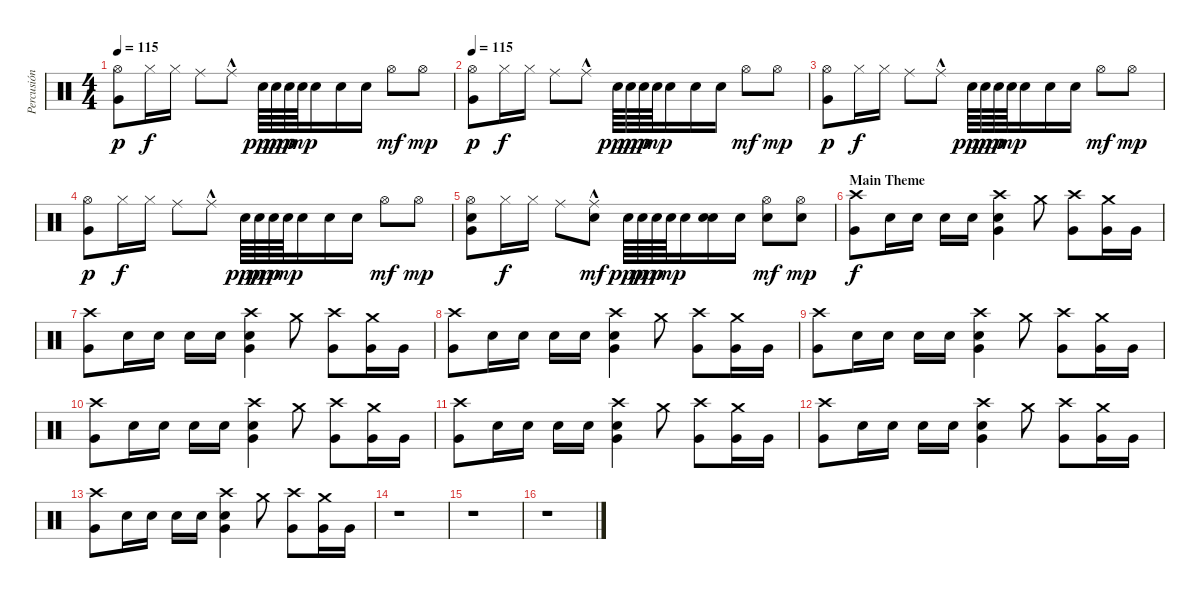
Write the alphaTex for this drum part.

\track ("Percusión" "Percusión") {instrument percussion}
\staff {score}
\articulation defaults
\ts (4 4)
\tempo 115
\clef neutral
\ks c
("Hi-Hat (open)" "Very Low Tom (hit)").8{dy p volume 16} "Hi-Hat (closed)".16{dy f} "Hi-Hat (closed)".16 "Ride (middle)".8 "Ride (middle)"{hac}.8 "Electric Snare (hit)".64{dy ppp} "Electric Snare (hit)".64{dy pp} "Electric Snare (hit)".64{dy p} "Electric Snare (hit)".64{dy mp} "Electric Snare (hit)".16 "Electric Snare (hit)".16 "Electric Snare (hit)".16 "Hi-Hat (open)".8{dy mf} "Hi-Hat (open)".8{dy mp} |
\tempo 115
("Hi-Hat (open)" "Very Low Tom (hit)").8{dy p} "Hi-Hat (closed)".16{dy f} "Hi-Hat (closed)".16 "Ride (middle)".8 "Ride (middle)"{hac}.8 "Electric Snare (hit)".64{dy ppp} "Electric Snare (hit)".64{dy pp} "Electric Snare (hit)".64{dy p} "Electric Snare (hit)".64{dy mp} "Electric Snare (hit)".16 "Electric Snare (hit)".16 "Electric Snare (hit)".16 "Hi-Hat (open)".8{dy mf} "Hi-Hat (open)".8{dy mp} |
("Hi-Hat (open)" "Very Low Tom (hit)").8{dy p} "Hi-Hat (closed)".16{dy f} "Hi-Hat (closed)".16 "Ride (middle)".8 "Ride (middle)"{hac}.8 "Electric Snare (hit)".64{dy ppp} "Electric Snare (hit)".64{dy pp} "Electric Snare (hit)".64{dy p} "Electric Snare (hit)".64{dy mp} "Electric Snare (hit)".16 "Electric Snare (hit)".16 "Electric Snare (hit)".16 "Hi-Hat (open)".8{dy mf} "Hi-Hat (open)".8{dy mp} |
("Hi-Hat (open)" "Very Low Tom (hit)").8{dy p} "Hi-Hat (closed)".16{dy f} "Hi-Hat (closed)".16 "Ride (middle)".8 "Ride (middle)"{hac}.8 "Electric Snare (hit)".64{dy ppp} "Electric Snare (hit)".64{dy pp} "Electric Snare (hit)".64{dy p} "Electric Snare (hit)".64{dy mp} "Electric Snare (hit)".16 "Electric Snare (hit)".16 "Electric Snare (hit)".16 "Hi-Hat (open)".8{dy mf} "Hi-Hat (open)".8{dy mp} |
("Hi-Hat (open)" "Snare (hit) 2" "Very Low Tom (hit)").8 "Hi-Hat (closed)".16{dy f} "Hi-Hat (closed)".16 "Ride (middle)".8 ("Ride (middle)"{hac} "Snare (hit) 2").8{dy mf} "Electric Snare (hit)".64{dy ppp} "Electric Snare (hit)".64{dy pp} "Electric Snare (hit)".64{dy p} "Electric Snare (hit)".64{dy mp} "Electric Snare (hit)".16 ("Electric Snare (hit)" "Snare (hit) 2").16 "Electric Snare (hit)".16 ("Hi-Hat (open)" "Snare (hit) 2").8{dy mf} ("Hi-Hat (open)" "Snare (hit) 2").8{dy mp} |
\section ("" "Main Theme")
("Crash high (hit)" "Very Low Tom (hit)").8{dy f} "Electric Snare (hit)".16 "Electric Snare (hit)".16 "Electric Snare (hit)".16 "Electric Snare (hit)".16 ("Crash high (hit)" "Electric Snare (hit)" "Very Low Tom (hit)").4 "Crash medium (hit)".8 ("Crash high (hit)" "Very Low Tom (hit)").8 ("Crash medium (hit)" "Very Low Tom (hit)").16 "Very Low Tom (hit)".16 |
("Crash high (hit)" "Very Low Tom (hit)").8 "Electric Snare (hit)".16 "Electric Snare (hit)".16 "Electric Snare (hit)".16 "Electric Snare (hit)".16 ("Crash high (hit)" "Electric Snare (hit)" "Very Low Tom (hit)").4 "Crash medium (hit)".8 ("Crash high (hit)" "Very Low Tom (hit)").8 ("Crash medium (hit)" "Very Low Tom (hit)").16 "Very Low Tom (hit)".16 |
("Crash high (hit)" "Very Low Tom (hit)").8 "Electric Snare (hit)".16 "Electric Snare (hit)".16 "Electric Snare (hit)".16 "Electric Snare (hit)".16 ("Crash high (hit)" "Electric Snare (hit)" "Very Low Tom (hit)").4 "Crash medium (hit)".8 ("Crash high (hit)" "Very Low Tom (hit)").8 ("Crash medium (hit)" "Very Low Tom (hit)").16 "Very Low Tom (hit)".16 |
("Crash high (hit)" "Very Low Tom (hit)").8 "Electric Snare (hit)".16 "Electric Snare (hit)".16 "Electric Snare (hit)".16 "Electric Snare (hit)".16 ("Crash high (hit)" "Electric Snare (hit)" "Very Low Tom (hit)").4 "Crash medium (hit)".8 ("Crash high (hit)" "Very Low Tom (hit)").8 ("Crash medium (hit)" "Very Low Tom (hit)").16 "Very Low Tom (hit)".16 |
("Crash high (hit)" "Very Low Tom (hit)").8 "Electric Snare (hit)".16 "Electric Snare (hit)".16 "Electric Snare (hit)".16 "Electric Snare (hit)".16 ("Crash high (hit)" "Electric Snare (hit)" "Very Low Tom (hit)").4 "Crash medium (hit)".8 ("Crash high (hit)" "Very Low Tom (hit)").8 ("Crash medium (hit)" "Very Low Tom (hit)").16 "Very Low Tom (hit)".16 |
("Crash high (hit)" "Very Low Tom (hit)").8 "Electric Snare (hit)".16 "Electric Snare (hit)".16 "Electric Snare (hit)".16 "Electric Snare (hit)".16 ("Crash high (hit)" "Electric Snare (hit)" "Very Low Tom (hit)").4 "Crash medium (hit)".8 ("Crash high (hit)" "Very Low Tom (hit)").8 ("Crash medium (hit)" "Very Low Tom (hit)").16 "Very Low Tom (hit)".16 |
("Crash high (hit)" "Very Low Tom (hit)").8 "Electric Snare (hit)".16 "Electric Snare (hit)".16 "Electric Snare (hit)".16 "Electric Snare (hit)".16 ("Crash high (hit)" "Electric Snare (hit)" "Very Low Tom (hit)").4 "Crash medium (hit)".8 ("Crash high (hit)" "Very Low Tom (hit)").8 ("Crash medium (hit)" "Very Low Tom (hit)").16 "Very Low Tom (hit)".16 |
("Crash high (hit)" "Very Low Tom (hit)").8 "Electric Snare (hit)".16 "Electric Snare (hit)".16 "Electric Snare (hit)".16 "Electric Snare (hit)".16 ("Crash high (hit)" "Electric Snare (hit)" "Very Low Tom (hit)").4 "Crash medium (hit)".8 ("Crash high (hit)" "Very Low Tom (hit)").8 ("Crash medium (hit)" "Very Low Tom (hit)").16 "Very Low Tom (hit)".16 |
r.1 |
r.1 |
r.1
